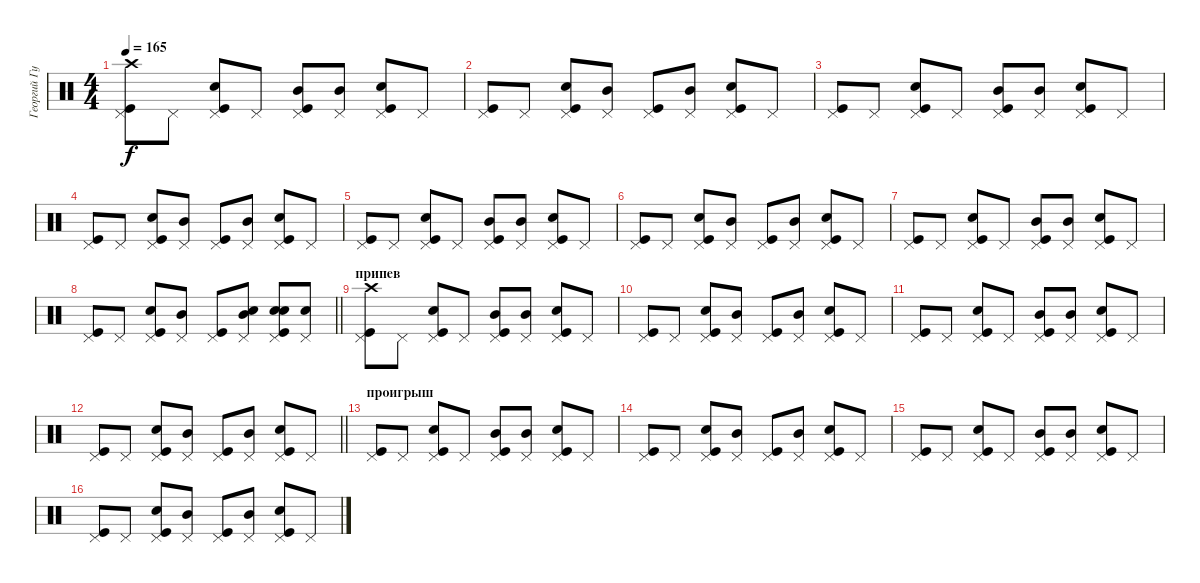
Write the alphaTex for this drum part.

\track ("Георгий Гурьянов" "Георгий Гу") {instrument percussion}
\staff {score}
\articulation defaults
\ts (4 4)
\tempo 165
\clef neutral
\ks c
("Pedal Hi-Hat (hit)" "Kick (hit)" "Crash high (hit)").8{dy f} "Pedal Hi-Hat (hit)".8 ("Pedal Hi-Hat (hit)" "Kick (hit)" "Snare (hit) 2").8 "Pedal Hi-Hat (hit)".8 ("Pedal Hi-Hat (hit)" "Kick (hit)" "Mid Tom (hit)").8 ("Pedal Hi-Hat (hit)" "Mid Tom (hit)").8 ("Pedal Hi-Hat (hit)" "Kick (hit)" "Snare (hit) 2").8 "Pedal Hi-Hat (hit)".8 |
("Pedal Hi-Hat (hit)" "Kick (hit)").8 "Pedal Hi-Hat (hit)".8 ("Pedal Hi-Hat (hit)" "Kick (hit)" "Snare (hit) 2").8 ("Pedal Hi-Hat (hit)" "Mid Tom (hit)").8 ("Pedal Hi-Hat (hit)" "Kick (hit)").8 ("Pedal Hi-Hat (hit)" "Mid Tom (hit)").8 ("Pedal Hi-Hat (hit)" "Kick (hit)" "Snare (hit) 2").8 "Pedal Hi-Hat (hit)".8 |
("Pedal Hi-Hat (hit)" "Kick (hit)").8 "Pedal Hi-Hat (hit)".8 ("Pedal Hi-Hat (hit)" "Kick (hit)" "Snare (hit) 2").8 "Pedal Hi-Hat (hit)".8 ("Pedal Hi-Hat (hit)" "Kick (hit)" "Mid Tom (hit)").8 ("Pedal Hi-Hat (hit)" "Mid Tom (hit)").8 ("Pedal Hi-Hat (hit)" "Kick (hit)" "Snare (hit) 2").8 "Pedal Hi-Hat (hit)".8 |
("Pedal Hi-Hat (hit)" "Kick (hit)").8 "Pedal Hi-Hat (hit)".8 ("Pedal Hi-Hat (hit)" "Kick (hit)" "Snare (hit) 2").8 ("Pedal Hi-Hat (hit)" "Mid Tom (hit)").8 ("Pedal Hi-Hat (hit)" "Kick (hit)").8 ("Pedal Hi-Hat (hit)" "Mid Tom (hit)").8 ("Pedal Hi-Hat (hit)" "Kick (hit)" "Snare (hit) 2").8 "Pedal Hi-Hat (hit)".8 |
("Pedal Hi-Hat (hit)" "Kick (hit)").8 "Pedal Hi-Hat (hit)".8 ("Pedal Hi-Hat (hit)" "Kick (hit)" "Snare (hit) 2").8 "Pedal Hi-Hat (hit)".8 ("Pedal Hi-Hat (hit)" "Kick (hit)" "Mid Tom (hit)").8 ("Pedal Hi-Hat (hit)" "Mid Tom (hit)").8 ("Pedal Hi-Hat (hit)" "Kick (hit)" "Snare (hit) 2").8 "Pedal Hi-Hat (hit)".8 |
("Pedal Hi-Hat (hit)" "Kick (hit)").8 "Pedal Hi-Hat (hit)".8 ("Pedal Hi-Hat (hit)" "Kick (hit)" "Snare (hit) 2").8 ("Pedal Hi-Hat (hit)" "Mid Tom (hit)").8 ("Pedal Hi-Hat (hit)" "Kick (hit)").8 ("Pedal Hi-Hat (hit)" "Mid Tom (hit)").8 ("Pedal Hi-Hat (hit)" "Kick (hit)" "Snare (hit) 2").8 "Pedal Hi-Hat (hit)".8 |
("Pedal Hi-Hat (hit)" "Kick (hit)").8 "Pedal Hi-Hat (hit)".8 ("Pedal Hi-Hat (hit)" "Kick (hit)" "Snare (hit) 2").8 "Pedal Hi-Hat (hit)".8 ("Pedal Hi-Hat (hit)" "Kick (hit)" "Mid Tom (hit)").8 ("Pedal Hi-Hat (hit)" "Mid Tom (hit)").8 ("Pedal Hi-Hat (hit)" "Kick (hit)" "Snare (hit) 2").8 "Pedal Hi-Hat (hit)".8 |
\barLineRight lightlight
("Pedal Hi-Hat (hit)" "Kick (hit)").8 "Pedal Hi-Hat (hit)".8 ("Pedal Hi-Hat (hit)" "Kick (hit)" "Snare (hit) 2").8 ("Pedal Hi-Hat (hit)" "Mid Tom (hit)").8 ("Pedal Hi-Hat (hit)" "Kick (hit)").8 ("Pedal Hi-Hat (hit)" "Mid Tom (hit)" "Snare (hit) 2").8 ("Pedal Hi-Hat (hit)" "Kick (hit)" "Snare (hit) 2" "Snare (hit) 2").8 ("Pedal Hi-Hat (hit)" "Snare (hit) 2").8 |
\section ("" "припев")
("Pedal Hi-Hat (hit)" "Kick (hit)" "Crash high (hit)").8 "Pedal Hi-Hat (hit)".8 ("Pedal Hi-Hat (hit)" "Kick (hit)" "Snare (hit) 2").8 "Pedal Hi-Hat (hit)".8 ("Pedal Hi-Hat (hit)" "Kick (hit)" "Mid Tom (hit)").8 ("Pedal Hi-Hat (hit)" "Mid Tom (hit)").8 ("Pedal Hi-Hat (hit)" "Kick (hit)" "Snare (hit) 2").8 "Pedal Hi-Hat (hit)".8 |
("Pedal Hi-Hat (hit)" "Kick (hit)").8 "Pedal Hi-Hat (hit)".8 ("Pedal Hi-Hat (hit)" "Kick (hit)" "Snare (hit) 2").8 ("Pedal Hi-Hat (hit)" "Mid Tom (hit)").8 ("Pedal Hi-Hat (hit)" "Kick (hit)").8 ("Pedal Hi-Hat (hit)" "Mid Tom (hit)").8 ("Pedal Hi-Hat (hit)" "Kick (hit)" "Snare (hit) 2").8 "Pedal Hi-Hat (hit)".8 |
("Pedal Hi-Hat (hit)" "Kick (hit)").8 "Pedal Hi-Hat (hit)".8 ("Pedal Hi-Hat (hit)" "Kick (hit)" "Snare (hit) 2").8 "Pedal Hi-Hat (hit)".8 ("Pedal Hi-Hat (hit)" "Kick (hit)" "Mid Tom (hit)").8 ("Pedal Hi-Hat (hit)" "Mid Tom (hit)").8 ("Pedal Hi-Hat (hit)" "Kick (hit)" "Snare (hit) 2").8 "Pedal Hi-Hat (hit)".8 |
\barLineRight lightlight
("Pedal Hi-Hat (hit)" "Kick (hit)").8 "Pedal Hi-Hat (hit)".8 ("Pedal Hi-Hat (hit)" "Kick (hit)" "Snare (hit) 2").8 ("Pedal Hi-Hat (hit)" "Mid Tom (hit)").8 ("Pedal Hi-Hat (hit)" "Kick (hit)").8 ("Pedal Hi-Hat (hit)" "Mid Tom (hit)").8 ("Pedal Hi-Hat (hit)" "Kick (hit)" "Snare (hit) 2").8 "Pedal Hi-Hat (hit)".8 |
\section ("" "проигрыш")
("Pedal Hi-Hat (hit)" "Kick (hit)").8 "Pedal Hi-Hat (hit)".8 ("Pedal Hi-Hat (hit)" "Kick (hit)" "Snare (hit) 2").8 "Pedal Hi-Hat (hit)".8 ("Pedal Hi-Hat (hit)" "Kick (hit)" "Mid Tom (hit)").8 ("Pedal Hi-Hat (hit)" "Mid Tom (hit)").8 ("Pedal Hi-Hat (hit)" "Kick (hit)" "Snare (hit) 2").8 "Pedal Hi-Hat (hit)".8 |
("Pedal Hi-Hat (hit)" "Kick (hit)").8 "Pedal Hi-Hat (hit)".8 ("Pedal Hi-Hat (hit)" "Kick (hit)" "Snare (hit) 2").8 ("Pedal Hi-Hat (hit)" "Mid Tom (hit)").8 ("Pedal Hi-Hat (hit)" "Kick (hit)").8 ("Pedal Hi-Hat (hit)" "Mid Tom (hit)").8 ("Pedal Hi-Hat (hit)" "Kick (hit)" "Snare (hit) 2").8 "Pedal Hi-Hat (hit)".8 |
("Pedal Hi-Hat (hit)" "Kick (hit)").8 "Pedal Hi-Hat (hit)".8 ("Pedal Hi-Hat (hit)" "Kick (hit)" "Snare (hit) 2").8 "Pedal Hi-Hat (hit)".8 ("Pedal Hi-Hat (hit)" "Kick (hit)" "Mid Tom (hit)").8 ("Pedal Hi-Hat (hit)" "Mid Tom (hit)").8 ("Pedal Hi-Hat (hit)" "Kick (hit)" "Snare (hit) 2").8 "Pedal Hi-Hat (hit)".8 |
("Pedal Hi-Hat (hit)" "Kick (hit)").8 "Pedal Hi-Hat (hit)".8 ("Pedal Hi-Hat (hit)" "Kick (hit)" "Snare (hit) 2").8 ("Pedal Hi-Hat (hit)" "Mid Tom (hit)").8 ("Pedal Hi-Hat (hit)" "Kick (hit)").8 ("Pedal Hi-Hat (hit)" "Mid Tom (hit)").8 ("Pedal Hi-Hat (hit)" "Kick (hit)" "Snare (hit) 2").8 "Pedal Hi-Hat (hit)".8
